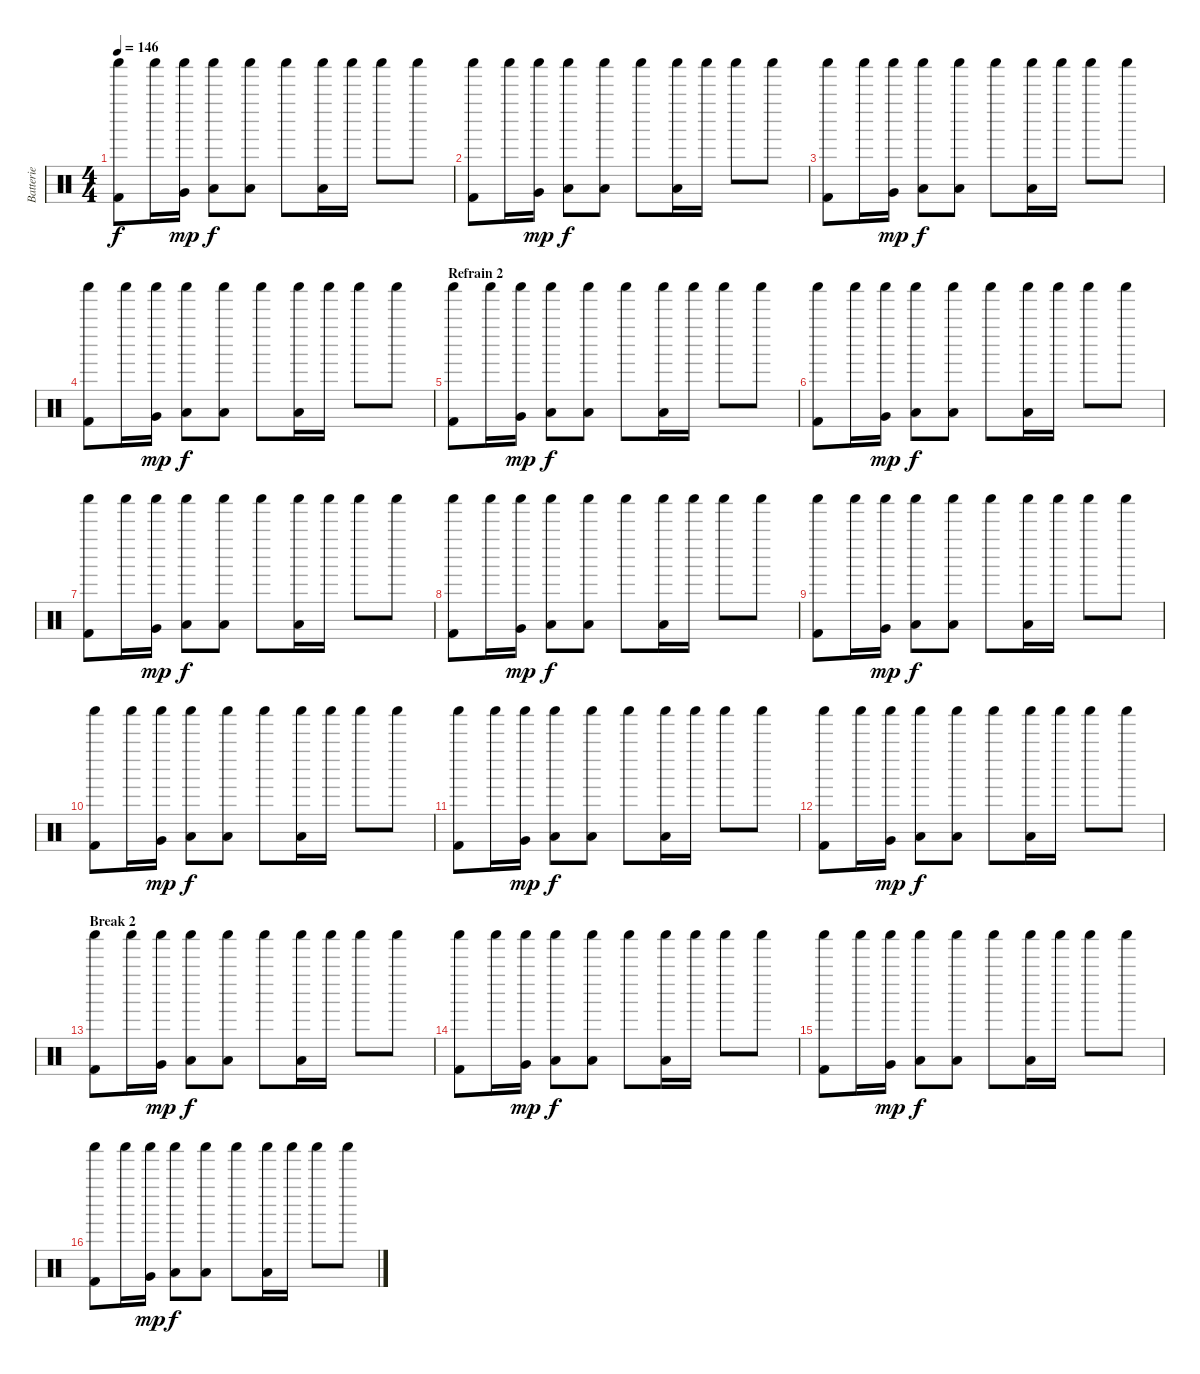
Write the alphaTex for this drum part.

\track ("Batterie" "Batterie") {instrument percussion}
\staff {score}
\articulation defaults
\ts (4 4)
\tempo 146
\clef neutral
\ks c
("Shaker (hit)" "Kick (hit) 2").8{dy f} "Shaker (hit)".16 ("Shaker (hit)" "Very Low Tom (hit)").16{dy mp} ("Shaker (hit)" "Low Tom (hit)").8{dy f} ("Shaker (hit)" "Low Tom (hit)").8 "Shaker (hit)".8 ("Shaker (hit)" "Low Tom (hit)").16 "Shaker (hit)".16 "Shaker (hit)".8 "Shaker (hit)".8 |
("Shaker (hit)" "Kick (hit) 2").8 "Shaker (hit)".16 ("Shaker (hit)" "Very Low Tom (hit)").16{dy mp} ("Shaker (hit)" "Low Tom (hit)").8{dy f} ("Shaker (hit)" "Low Tom (hit)").8 "Shaker (hit)".8 ("Shaker (hit)" "Low Tom (hit)").16 "Shaker (hit)".16 "Shaker (hit)".8 "Shaker (hit)".8 |
("Shaker (hit)" "Kick (hit) 2").8 "Shaker (hit)".16 ("Shaker (hit)" "Very Low Tom (hit)").16{dy mp} ("Shaker (hit)" "Low Tom (hit)").8{dy f} ("Shaker (hit)" "Low Tom (hit)").8 "Shaker (hit)".8 ("Shaker (hit)" "Low Tom (hit)").16 "Shaker (hit)".16 "Shaker (hit)".8 "Shaker (hit)".8 |
("Shaker (hit)" "Kick (hit) 2").8 "Shaker (hit)".16 ("Shaker (hit)" "Very Low Tom (hit)").16{dy mp} ("Shaker (hit)" "Low Tom (hit)").8{dy f} ("Shaker (hit)" "Low Tom (hit)").8 "Shaker (hit)".8 ("Shaker (hit)" "Low Tom (hit)").16 "Shaker (hit)".16 "Shaker (hit)".8 "Shaker (hit)".8 |
\section ("" "Refrain 2")
("Shaker (hit)" "Kick (hit) 2").8 "Shaker (hit)".16 ("Shaker (hit)" "Very Low Tom (hit)").16{dy mp} ("Shaker (hit)" "Low Tom (hit)").8{dy f} ("Shaker (hit)" "Low Tom (hit)").8 "Shaker (hit)".8 ("Shaker (hit)" "Low Tom (hit)").16 "Shaker (hit)".16 "Shaker (hit)".8 "Shaker (hit)".8 |
("Shaker (hit)" "Kick (hit) 2").8 "Shaker (hit)".16 ("Shaker (hit)" "Very Low Tom (hit)").16{dy mp} ("Shaker (hit)" "Low Tom (hit)").8{dy f} ("Shaker (hit)" "Low Tom (hit)").8 "Shaker (hit)".8 ("Shaker (hit)" "Low Tom (hit)").16 "Shaker (hit)".16 "Shaker (hit)".8 "Shaker (hit)".8 |
("Shaker (hit)" "Kick (hit) 2").8 "Shaker (hit)".16 ("Shaker (hit)" "Very Low Tom (hit)").16{dy mp} ("Shaker (hit)" "Low Tom (hit)").8{dy f} ("Shaker (hit)" "Low Tom (hit)").8 "Shaker (hit)".8 ("Shaker (hit)" "Low Tom (hit)").16 "Shaker (hit)".16 "Shaker (hit)".8 "Shaker (hit)".8 |
("Shaker (hit)" "Kick (hit) 2").8 "Shaker (hit)".16 ("Shaker (hit)" "Very Low Tom (hit)").16{dy mp} ("Shaker (hit)" "Low Tom (hit)").8{dy f} ("Shaker (hit)" "Low Tom (hit)").8 "Shaker (hit)".8 ("Shaker (hit)" "Low Tom (hit)").16 "Shaker (hit)".16 "Shaker (hit)".8 "Shaker (hit)".8 |
("Shaker (hit)" "Kick (hit) 2").8 "Shaker (hit)".16 ("Shaker (hit)" "Very Low Tom (hit)").16{dy mp} ("Shaker (hit)" "Low Tom (hit)").8{dy f} ("Shaker (hit)" "Low Tom (hit)").8 "Shaker (hit)".8 ("Shaker (hit)" "Low Tom (hit)").16 "Shaker (hit)".16 "Shaker (hit)".8 "Shaker (hit)".8 |
("Shaker (hit)" "Kick (hit) 2").8 "Shaker (hit)".16 ("Shaker (hit)" "Very Low Tom (hit)").16{dy mp} ("Shaker (hit)" "Low Tom (hit)").8{dy f} ("Shaker (hit)" "Low Tom (hit)").8 "Shaker (hit)".8 ("Shaker (hit)" "Low Tom (hit)").16 "Shaker (hit)".16 "Shaker (hit)".8 "Shaker (hit)".8 |
("Shaker (hit)" "Kick (hit) 2").8 "Shaker (hit)".16 ("Shaker (hit)" "Very Low Tom (hit)").16{dy mp} ("Shaker (hit)" "Low Tom (hit)").8{dy f} ("Shaker (hit)" "Low Tom (hit)").8 "Shaker (hit)".8 ("Shaker (hit)" "Low Tom (hit)").16 "Shaker (hit)".16 "Shaker (hit)".8 "Shaker (hit)".8 |
("Shaker (hit)" "Kick (hit) 2").8 "Shaker (hit)".16 ("Shaker (hit)" "Very Low Tom (hit)").16{dy mp} ("Shaker (hit)" "Low Tom (hit)").8{dy f} ("Shaker (hit)" "Low Tom (hit)").8 "Shaker (hit)".8 ("Shaker (hit)" "Low Tom (hit)").16 "Shaker (hit)".16 "Shaker (hit)".8 "Shaker (hit)".8 |
\section ("" "Break 2")
("Shaker (hit)" "Kick (hit) 2").8 "Shaker (hit)".16 ("Shaker (hit)" "Very Low Tom (hit)").16{dy mp} ("Shaker (hit)" "Low Tom (hit)").8{dy f} ("Shaker (hit)" "Low Tom (hit)").8 "Shaker (hit)".8 ("Shaker (hit)" "Low Tom (hit)").16 "Shaker (hit)".16 "Shaker (hit)".8 "Shaker (hit)".8 |
("Shaker (hit)" "Kick (hit) 2").8 "Shaker (hit)".16 ("Shaker (hit)" "Very Low Tom (hit)").16{dy mp} ("Shaker (hit)" "Low Tom (hit)").8{dy f} ("Shaker (hit)" "Low Tom (hit)").8 "Shaker (hit)".8 ("Shaker (hit)" "Low Tom (hit)").16 "Shaker (hit)".16 "Shaker (hit)".8 "Shaker (hit)".8 |
("Shaker (hit)" "Kick (hit) 2").8 "Shaker (hit)".16 ("Shaker (hit)" "Very Low Tom (hit)").16{dy mp} ("Shaker (hit)" "Low Tom (hit)").8{dy f} ("Shaker (hit)" "Low Tom (hit)").8 "Shaker (hit)".8 ("Shaker (hit)" "Low Tom (hit)").16 "Shaker (hit)".16 "Shaker (hit)".8 "Shaker (hit)".8 |
("Shaker (hit)" "Kick (hit) 2").8 "Shaker (hit)".16 ("Shaker (hit)" "Very Low Tom (hit)").16{dy mp} ("Shaker (hit)" "Low Tom (hit)").8{dy f} ("Shaker (hit)" "Low Tom (hit)").8 "Shaker (hit)".8 ("Shaker (hit)" "Low Tom (hit)").16 "Shaker (hit)".16 "Shaker (hit)".8 "Shaker (hit)".8
